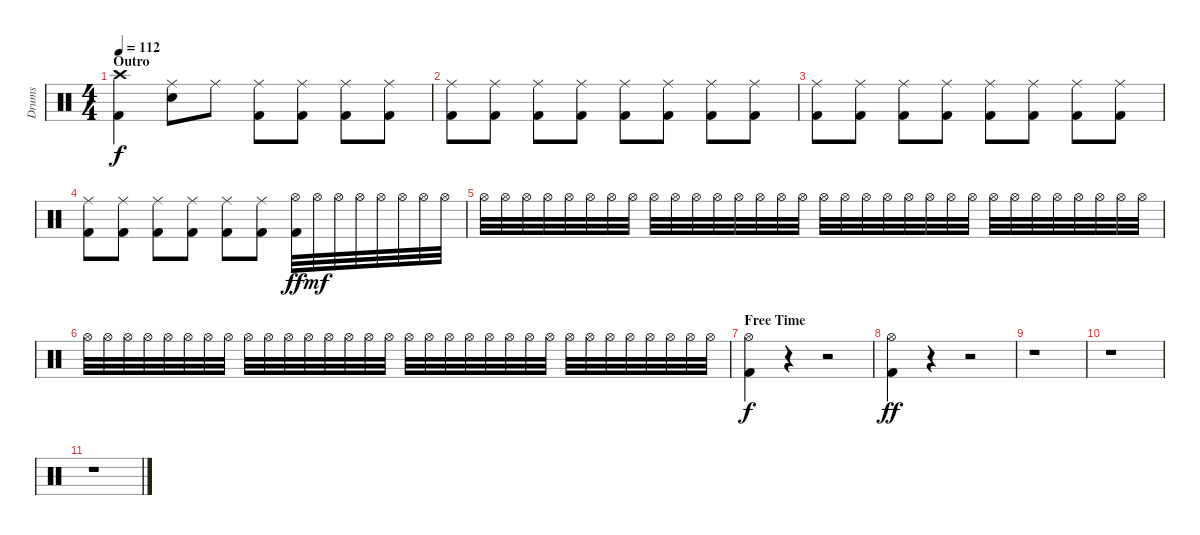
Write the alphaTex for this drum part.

\track ("Drums" "Drums") {instrument percussion}
\staff {score}
\articulation defaults
\ts (4 4)
\section ("" "Outro")
\tempo 112
\clef neutral
\ks c
("Crash high (hit)" "Kick (hit) 2").4{dy f} ("Ride (middle)" "Electric Snare (hit)").8 "Ride (middle)".8 ("Ride (middle)" "Kick (hit) 2").8 ("Ride (middle)" "Kick (hit) 2").8 ("Ride (middle)" "Kick (hit) 2").8 ("Ride (middle)" "Kick (hit) 2").8 |
("Ride (middle)" "Kick (hit) 2").8 ("Ride (middle)" "Kick (hit) 2").8 ("Ride (middle)" "Kick (hit) 2").8 ("Ride (middle)" "Kick (hit) 2").8 ("Ride (middle)" "Kick (hit) 2").8 ("Ride (middle)" "Kick (hit) 2").8 ("Ride (middle)" "Kick (hit) 2").8 ("Ride (middle)" "Kick (hit) 2").8 |
("Ride (middle)" "Kick (hit) 2").8 ("Ride (middle)" "Kick (hit) 2").8 ("Ride (middle)" "Kick (hit) 2").8 ("Ride (middle)" "Kick (hit) 2").8 ("Ride (middle)" "Kick (hit) 2").8 ("Ride (middle)" "Kick (hit) 2").8 ("Ride (middle)" "Kick (hit) 2").8 ("Ride (middle)" "Kick (hit) 2").8 |
("Ride (middle)" "Kick (hit) 2").8 ("Ride (middle)" "Kick (hit) 2").8 ("Ride (middle)" "Kick (hit) 2").8 ("Ride (middle)" "Kick (hit) 2").8 ("Ride (middle)" "Kick (hit) 2").8 ("Ride (middle)" "Kick (hit) 2").8 ("Hi-Hat (open)" "Kick (hit) 2").32{dy ff} "Hi-Hat (open)".32{dy mf} "Hi-Hat (open)".32 "Hi-Hat (open)".32 "Hi-Hat (open)".32 "Hi-Hat (open)".32 "Hi-Hat (open)".32 "Hi-Hat (open)".32 |
"Hi-Hat (open)".32 "Hi-Hat (open)".32 "Hi-Hat (open)".32 "Hi-Hat (open)".32 "Hi-Hat (open)".32 "Hi-Hat (open)".32 "Hi-Hat (open)".32 "Hi-Hat (open)".32 "Hi-Hat (open)".32 "Hi-Hat (open)".32 "Hi-Hat (open)".32 "Hi-Hat (open)".32 "Hi-Hat (open)".32 "Hi-Hat (open)".32 "Hi-Hat (open)".32 "Hi-Hat (open)".32 "Hi-Hat (open)".32 "Hi-Hat (open)".32 "Hi-Hat (open)".32 "Hi-Hat (open)".32 "Hi-Hat (open)".32 "Hi-Hat (open)".32 "Hi-Hat (open)".32 "Hi-Hat (open)".32 "Hi-Hat (open)".32 "Hi-Hat (open)".32 "Hi-Hat (open)".32 "Hi-Hat (open)".32 "Hi-Hat (open)".32 "Hi-Hat (open)".32 "Hi-Hat (open)".32 "Hi-Hat (open)".32 |
"Hi-Hat (open)".32 "Hi-Hat (open)".32 "Hi-Hat (open)".32 "Hi-Hat (open)".32 "Hi-Hat (open)".32 "Hi-Hat (open)".32 "Hi-Hat (open)".32 "Hi-Hat (open)".32 "Hi-Hat (open)".32 "Hi-Hat (open)".32 "Hi-Hat (open)".32 "Hi-Hat (open)".32 "Hi-Hat (open)".32 "Hi-Hat (open)".32 "Hi-Hat (open)".32 "Hi-Hat (open)".32 "Hi-Hat (open)".32 "Hi-Hat (open)".32 "Hi-Hat (open)".32 "Hi-Hat (open)".32 "Hi-Hat (open)".32 "Hi-Hat (open)".32 "Hi-Hat (open)".32 "Hi-Hat (open)".32 "Hi-Hat (open)".32 "Hi-Hat (open)".32 "Hi-Hat (open)".32 "Hi-Hat (open)".32 "Hi-Hat (open)".32 "Hi-Hat (open)".32 "Hi-Hat (open)".32 "Hi-Hat (open)".32 |
\section ("" "Free Time")
("Hi-Hat (open)" "Kick (hit) 2").4{dy f} r.4 r.2 |
("Hi-Hat (open)" "Kick (hit) 2").4{dy ff} r.4 r.2 |
r.1 |
r.1 |
r.1
